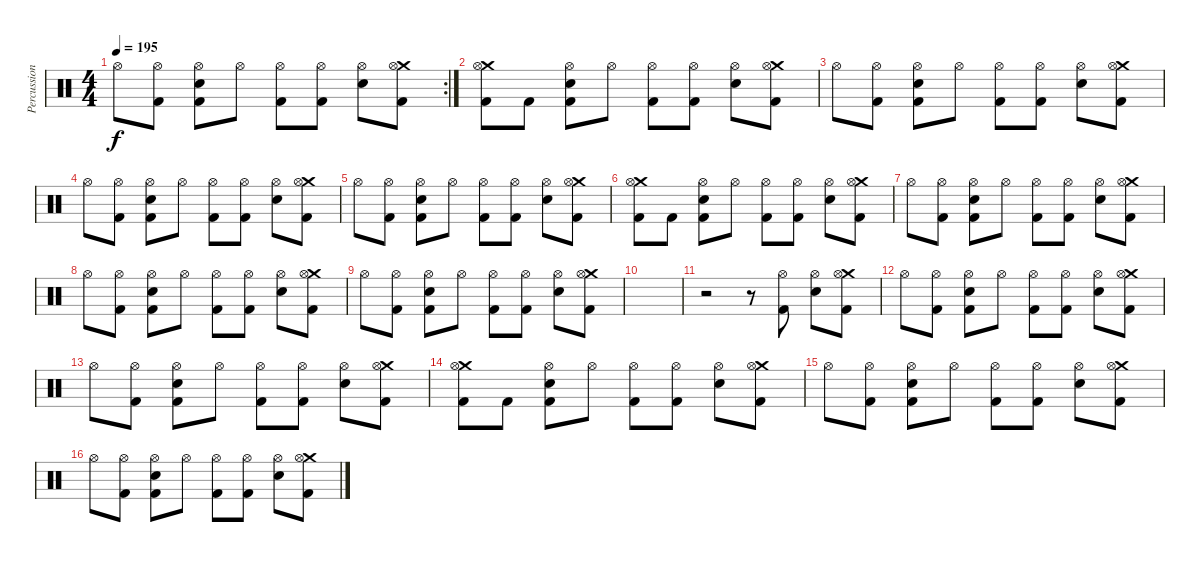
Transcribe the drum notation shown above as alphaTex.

\track ("Percussion" "Percussion") {instrument percussion}
\staff {score}
\articulation defaults
\rc 2
\ts (4 4)
\tempo 195
\clef neutral
\ks c "Hi-Hat (open)".8{dy f}
("Hi-Hat (open)" "Kick (hit) 2").8 ("Hi-Hat (open)" "Snare (hit) 2" "Kick (hit) 2").8 "Hi-Hat (open)".8 ("Hi-Hat (open)" "Kick (hit) 2").8 ("Hi-Hat (open)" "Kick (hit) 2").8 ("Hi-Hat (open)" "Snare (hit) 2").8 ("Crash medium (hit)" "Hi-Hat (open)" "Kick (hit) 2").8 |
("Crash medium (hit)" "Hi-Hat (open)" "Kick (hit) 2").8 "Kick (hit) 2".8 ("Hi-Hat (open)" "Snare (hit) 2" "Kick (hit) 2").8 "Hi-Hat (open)".8 ("Hi-Hat (open)" "Kick (hit) 2").8 ("Hi-Hat (open)" "Kick (hit) 2").8 ("Hi-Hat (open)" "Snare (hit) 2").8 ("Crash medium (hit)" "Hi-Hat (open)" "Kick (hit) 2").8 |
"Hi-Hat (open)".8 ("Hi-Hat (open)" "Kick (hit) 2").8 ("Hi-Hat (open)" "Snare (hit) 2" "Kick (hit) 2").8 "Hi-Hat (open)".8 ("Hi-Hat (open)" "Kick (hit) 2").8 ("Hi-Hat (open)" "Kick (hit) 2").8 ("Hi-Hat (open)" "Snare (hit) 2").8 ("Crash medium (hit)" "Hi-Hat (open)" "Kick (hit) 2").8 |
"Hi-Hat (open)".8 ("Hi-Hat (open)" "Kick (hit) 2").8 ("Hi-Hat (open)" "Snare (hit) 2" "Kick (hit) 2").8 "Hi-Hat (open)".8 ("Hi-Hat (open)" "Kick (hit) 2").8 ("Hi-Hat (open)" "Kick (hit) 2").8 ("Hi-Hat (open)" "Snare (hit) 2").8 ("Crash medium (hit)" "Hi-Hat (open)" "Kick (hit) 2").8 |
"Hi-Hat (open)".8 ("Hi-Hat (open)" "Kick (hit) 2").8 ("Hi-Hat (open)" "Snare (hit) 2" "Kick (hit) 2").8 "Hi-Hat (open)".8 ("Hi-Hat (open)" "Kick (hit) 2").8 ("Hi-Hat (open)" "Kick (hit) 2").8 ("Hi-Hat (open)" "Snare (hit) 2").8 ("Crash medium (hit)" "Hi-Hat (open)" "Kick (hit) 2").8 |
("Crash medium (hit)" "Hi-Hat (open)" "Kick (hit) 2").8 "Kick (hit) 2".8 ("Hi-Hat (open)" "Snare (hit) 2" "Kick (hit) 2").8 "Hi-Hat (open)".8 ("Hi-Hat (open)" "Kick (hit) 2").8 ("Hi-Hat (open)" "Kick (hit) 2").8 ("Hi-Hat (open)" "Snare (hit) 2").8 ("Crash medium (hit)" "Hi-Hat (open)" "Kick (hit) 2").8 |
"Hi-Hat (open)".8 ("Hi-Hat (open)" "Kick (hit) 2").8 ("Hi-Hat (open)" "Snare (hit) 2" "Kick (hit) 2").8 "Hi-Hat (open)".8 ("Hi-Hat (open)" "Kick (hit) 2").8 ("Hi-Hat (open)" "Kick (hit) 2").8 ("Hi-Hat (open)" "Snare (hit) 2").8 ("Crash medium (hit)" "Hi-Hat (open)" "Kick (hit) 2").8 |
"Hi-Hat (open)".8 ("Hi-Hat (open)" "Kick (hit) 2").8 ("Hi-Hat (open)" "Snare (hit) 2" "Kick (hit) 2").8 "Hi-Hat (open)".8 ("Hi-Hat (open)" "Kick (hit) 2").8 ("Hi-Hat (open)" "Kick (hit) 2").8 ("Hi-Hat (open)" "Snare (hit) 2").8 ("Crash medium (hit)" "Hi-Hat (open)" "Kick (hit) 2").8 |
"Hi-Hat (open)".8 ("Hi-Hat (open)" "Kick (hit) 2").8 ("Hi-Hat (open)" "Snare (hit) 2" "Kick (hit) 2").8 "Hi-Hat (open)".8 ("Hi-Hat (open)" "Kick (hit) 2").8 ("Hi-Hat (open)" "Kick (hit) 2").8 ("Hi-Hat (open)" "Snare (hit) 2").8 ("Crash medium (hit)" "Hi-Hat (open)" "Kick (hit) 2").8 |
|
r.2 r.8 ("Hi-Hat (open)" "Kick (hit) 2").8 ("Hi-Hat (open)" "Snare (hit) 2").8 ("Crash medium (hit)" "Hi-Hat (open)" "Kick (hit) 2").8 |
"Hi-Hat (open)".8 ("Hi-Hat (open)" "Kick (hit) 2").8 ("Hi-Hat (open)" "Snare (hit) 2" "Kick (hit) 2").8 "Hi-Hat (open)".8 ("Hi-Hat (open)" "Kick (hit) 2").8 ("Hi-Hat (open)" "Kick (hit) 2").8 ("Hi-Hat (open)" "Snare (hit) 2").8 ("Crash medium (hit)" "Hi-Hat (open)" "Kick (hit) 2").8 |
"Hi-Hat (open)".8 ("Hi-Hat (open)" "Kick (hit) 2").8 ("Hi-Hat (open)" "Snare (hit) 2" "Kick (hit) 2").8 "Hi-Hat (open)".8 ("Hi-Hat (open)" "Kick (hit) 2").8 ("Hi-Hat (open)" "Kick (hit) 2").8 ("Hi-Hat (open)" "Snare (hit) 2").8 ("Crash medium (hit)" "Hi-Hat (open)" "Kick (hit) 2").8 |
("Crash medium (hit)" "Hi-Hat (open)" "Kick (hit) 2").8 "Kick (hit) 2".8 ("Hi-Hat (open)" "Snare (hit) 2" "Kick (hit) 2").8 "Hi-Hat (open)".8 ("Hi-Hat (open)" "Kick (hit) 2").8 ("Hi-Hat (open)" "Kick (hit) 2").8 ("Hi-Hat (open)" "Snare (hit) 2").8 ("Crash medium (hit)" "Hi-Hat (open)" "Kick (hit) 2").8 |
"Hi-Hat (open)".8 ("Hi-Hat (open)" "Kick (hit) 2").8 ("Hi-Hat (open)" "Snare (hit) 2" "Kick (hit) 2").8 "Hi-Hat (open)".8 ("Hi-Hat (open)" "Kick (hit) 2").8 ("Hi-Hat (open)" "Kick (hit) 2").8 ("Hi-Hat (open)" "Snare (hit) 2").8 ("Crash medium (hit)" "Hi-Hat (open)" "Kick (hit) 2").8 |
"Hi-Hat (open)".8 ("Hi-Hat (open)" "Kick (hit) 2").8 ("Hi-Hat (open)" "Snare (hit) 2" "Kick (hit) 2").8 "Hi-Hat (open)".8 ("Hi-Hat (open)" "Kick (hit) 2").8 ("Hi-Hat (open)" "Kick (hit) 2").8 ("Hi-Hat (open)" "Snare (hit) 2").8 ("Crash medium (hit)" "Hi-Hat (open)" "Kick (hit) 2").8
